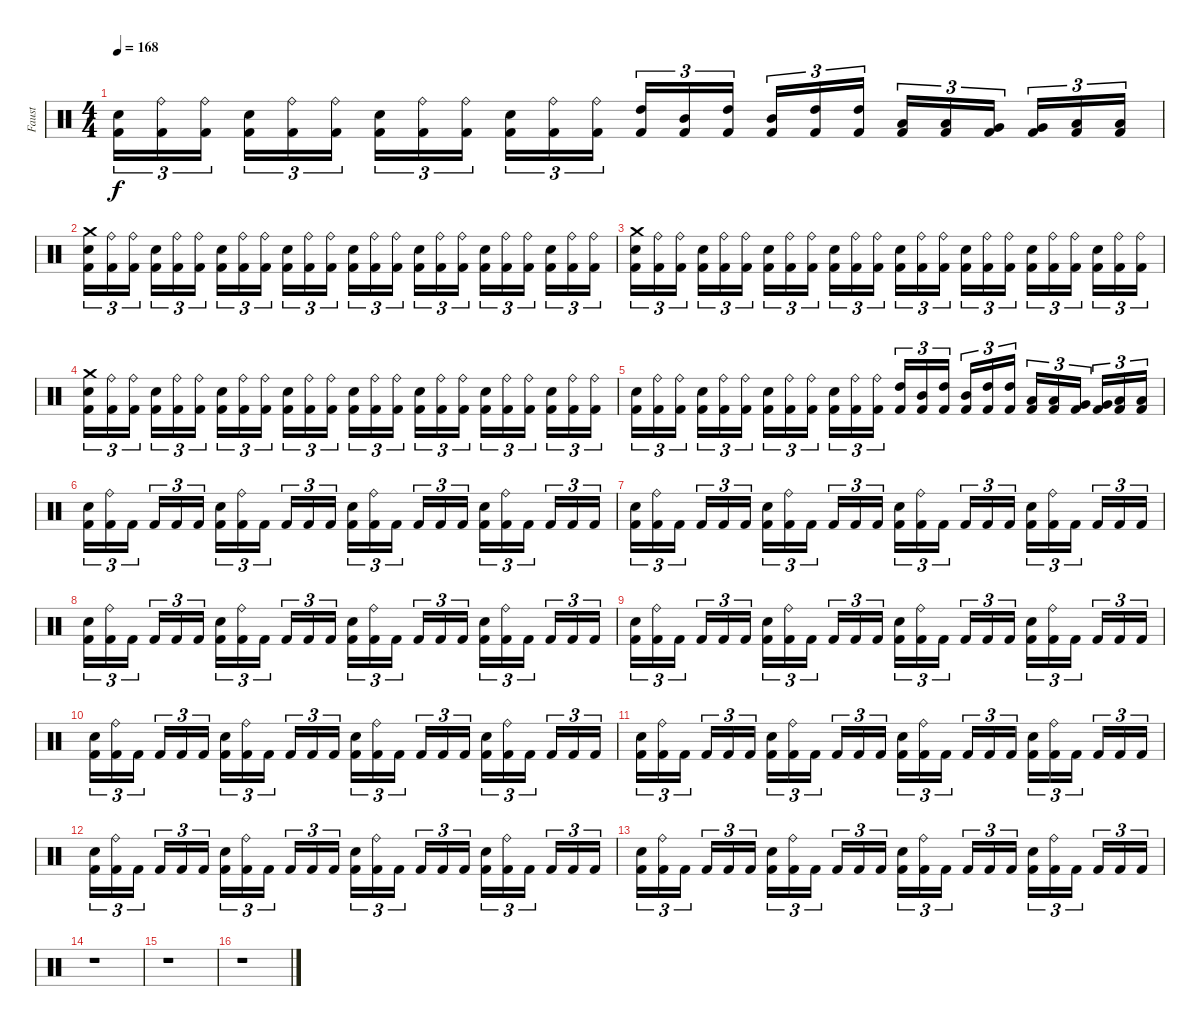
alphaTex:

\track ("Faust" "Faust") {instrument percussion}
\staff {score}
\articulation defaults
\ts (4 4)
\tempo 168
\clef neutral
\ks c
("Electric Snare (hit)" "Kick (hit) 2").16{tu (3 2) dy f} ("Ride (bell)" "Kick (hit) 2").16{tu (3 2)} ("Ride (bell)" "Kick (hit) 2").16{tu (3 2)} ("Electric Snare (hit)" "Kick (hit) 2").16{tu (3 2)} ("Ride (bell)" "Kick (hit) 2").16{tu (3 2)} ("Ride (bell)" "Kick (hit) 2").16{tu (3 2)} ("Electric Snare (hit)" "Kick (hit) 2").16{tu (3 2)} ("Ride (bell)" "Kick (hit) 2").16{tu (3 2)} ("Ride (bell)" "Kick (hit) 2").16{tu (3 2)} ("Electric Snare (hit)" "Kick (hit) 2").16{tu (3 2)} ("Ride (bell)" "Kick (hit) 2").16{tu (3 2)} ("Ride (bell)" "Kick (hit) 2").16{tu (3 2)} ("High Tom (hit)" "Kick (hit) 2").16{tu (3 2)} ("Mid Tom (hit)" "Kick (hit) 2").16{tu (3 2)} ("High Tom (hit)" "Kick (hit) 2").16{tu (3 2)} ("Mid Tom (hit)" "Kick (hit) 2").16{tu (3 2)} ("High Tom (hit)" "Kick (hit) 2").16{tu (3 2)} ("High Tom (hit)" "Kick (hit) 2").16{tu (3 2)} ("Low Tom (hit)" "Kick (hit) 2").16{tu (3 2)} ("Low Tom (hit)" "Kick (hit) 2").16{tu (3 2)} ("Very Low Tom (hit)" "Kick (hit) 2").16{tu (3 2)} ("Very Low Tom (hit)" "Kick (hit) 2").16{tu (3 2)} ("Low Floor Tom (hit)" "Kick (hit) 2").16{tu (3 2)} ("Low Floor Tom (hit)" "Kick (hit) 2").16{tu (3 2)} |
("Crash medium (hit)" "Electric Snare (hit)" "Kick (hit) 2").16{tu (3 2)} ("Ride (bell)" "Kick (hit) 2").16{tu (3 2)} ("Ride (bell)" "Kick (hit) 2").16{tu (3 2)} ("Electric Snare (hit)" "Kick (hit) 2").16{tu (3 2)} ("Ride (bell)" "Kick (hit) 2").16{tu (3 2)} ("Ride (bell)" "Kick (hit) 2").16{tu (3 2)} ("Electric Snare (hit)" "Kick (hit) 2").16{tu (3 2)} ("Ride (bell)" "Kick (hit) 2").16{tu (3 2)} ("Ride (bell)" "Kick (hit) 2").16{tu (3 2)} ("Electric Snare (hit)" "Kick (hit) 2").16{tu (3 2)} ("Ride (bell)" "Kick (hit) 2").16{tu (3 2)} ("Ride (bell)" "Kick (hit) 2").16{tu (3 2)} ("Electric Snare (hit)" "Kick (hit) 2").16{tu (3 2)} ("Ride (bell)" "Kick (hit) 2").16{tu (3 2)} ("Ride (bell)" "Kick (hit) 2").16{tu (3 2)} ("Electric Snare (hit)" "Kick (hit) 2").16{tu (3 2)} ("Ride (bell)" "Kick (hit) 2").16{tu (3 2)} ("Ride (bell)" "Kick (hit) 2").16{tu (3 2)} ("Electric Snare (hit)" "Kick (hit) 2").16{tu (3 2)} ("Ride (bell)" "Kick (hit) 2").16{tu (3 2)} ("Ride (bell)" "Kick (hit) 2").16{tu (3 2)} ("Electric Snare (hit)" "Kick (hit) 2").16{tu (3 2)} ("Ride (bell)" "Kick (hit) 2").16{tu (3 2)} ("Ride (bell)" "Kick (hit) 2").16{tu (3 2)} |
("Crash medium (hit)" "Electric Snare (hit)" "Kick (hit) 2").16{tu (3 2)} ("Ride (bell)" "Kick (hit) 2").16{tu (3 2)} ("Ride (bell)" "Kick (hit) 2").16{tu (3 2)} ("Electric Snare (hit)" "Kick (hit) 2").16{tu (3 2)} ("Ride (bell)" "Kick (hit) 2").16{tu (3 2)} ("Ride (bell)" "Kick (hit) 2").16{tu (3 2)} ("Electric Snare (hit)" "Kick (hit) 2").16{tu (3 2)} ("Ride (bell)" "Kick (hit) 2").16{tu (3 2)} ("Ride (bell)" "Kick (hit) 2").16{tu (3 2)} ("Electric Snare (hit)" "Kick (hit) 2").16{tu (3 2)} ("Ride (bell)" "Kick (hit) 2").16{tu (3 2)} ("Ride (bell)" "Kick (hit) 2").16{tu (3 2)} ("Electric Snare (hit)" "Kick (hit) 2").16{tu (3 2)} ("Ride (bell)" "Kick (hit) 2").16{tu (3 2)} ("Ride (bell)" "Kick (hit) 2").16{tu (3 2)} ("Electric Snare (hit)" "Kick (hit) 2").16{tu (3 2)} ("Ride (bell)" "Kick (hit) 2").16{tu (3 2)} ("Ride (bell)" "Kick (hit) 2").16{tu (3 2)} ("Electric Snare (hit)" "Kick (hit) 2").16{tu (3 2)} ("Ride (bell)" "Kick (hit) 2").16{tu (3 2)} ("Ride (bell)" "Kick (hit) 2").16{tu (3 2)} ("Electric Snare (hit)" "Kick (hit) 2").16{tu (3 2)} ("Ride (bell)" "Kick (hit) 2").16{tu (3 2)} ("Ride (bell)" "Kick (hit) 2").16{tu (3 2)} |
("Crash medium (hit)" "Electric Snare (hit)" "Kick (hit) 2").16{tu (3 2)} ("Ride (bell)" "Kick (hit) 2").16{tu (3 2)} ("Ride (bell)" "Kick (hit) 2").16{tu (3 2)} ("Electric Snare (hit)" "Kick (hit) 2").16{tu (3 2)} ("Ride (bell)" "Kick (hit) 2").16{tu (3 2)} ("Ride (bell)" "Kick (hit) 2").16{tu (3 2)} ("Electric Snare (hit)" "Kick (hit) 2").16{tu (3 2)} ("Ride (bell)" "Kick (hit) 2").16{tu (3 2)} ("Ride (bell)" "Kick (hit) 2").16{tu (3 2)} ("Electric Snare (hit)" "Kick (hit) 2").16{tu (3 2)} ("Ride (bell)" "Kick (hit) 2").16{tu (3 2)} ("Ride (bell)" "Kick (hit) 2").16{tu (3 2)} ("Electric Snare (hit)" "Kick (hit) 2").16{tu (3 2)} ("Ride (bell)" "Kick (hit) 2").16{tu (3 2)} ("Ride (bell)" "Kick (hit) 2").16{tu (3 2)} ("Electric Snare (hit)" "Kick (hit) 2").16{tu (3 2)} ("Ride (bell)" "Kick (hit) 2").16{tu (3 2)} ("Ride (bell)" "Kick (hit) 2").16{tu (3 2)} ("Electric Snare (hit)" "Kick (hit) 2").16{tu (3 2)} ("Ride (bell)" "Kick (hit) 2").16{tu (3 2)} ("Ride (bell)" "Kick (hit) 2").16{tu (3 2)} ("Electric Snare (hit)" "Kick (hit) 2").16{tu (3 2)} ("Ride (bell)" "Kick (hit) 2").16{tu (3 2)} ("Ride (bell)" "Kick (hit) 2").16{tu (3 2)} |
("Electric Snare (hit)" "Kick (hit) 2").16{tu (3 2)} ("Ride (bell)" "Kick (hit) 2").16{tu (3 2)} ("Ride (bell)" "Kick (hit) 2").16{tu (3 2)} ("Electric Snare (hit)" "Kick (hit) 2").16{tu (3 2)} ("Ride (bell)" "Kick (hit) 2").16{tu (3 2)} ("Ride (bell)" "Kick (hit) 2").16{tu (3 2)} ("Electric Snare (hit)" "Kick (hit) 2").16{tu (3 2)} ("Ride (bell)" "Kick (hit) 2").16{tu (3 2)} ("Ride (bell)" "Kick (hit) 2").16{tu (3 2)} ("Electric Snare (hit)" "Kick (hit) 2").16{tu (3 2)} ("Ride (bell)" "Kick (hit) 2").16{tu (3 2)} ("Ride (bell)" "Kick (hit) 2").16{tu (3 2)} ("High Tom (hit)" "Kick (hit) 2").16{tu (3 2)} ("Mid Tom (hit)" "Kick (hit) 2").16{tu (3 2)} ("High Tom (hit)" "Kick (hit) 2").16{tu (3 2)} ("Mid Tom (hit)" "Kick (hit) 2").16{tu (3 2)} ("High Tom (hit)" "Kick (hit) 2").16{tu (3 2)} ("High Tom (hit)" "Kick (hit) 2").16{tu (3 2)} ("Low Tom (hit)" "Kick (hit) 2").16{tu (3 2)} ("Low Tom (hit)" "Kick (hit) 2").16{tu (3 2)} ("Very Low Tom (hit)" "Kick (hit) 2").16{tu (3 2)} ("Very Low Tom (hit)" "Kick (hit) 2").16{tu (3 2)} ("Low Floor Tom (hit)" "Kick (hit) 2").16{tu (3 2)} ("Low Floor Tom (hit)" "Kick (hit) 2").16{tu (3 2)} |
("Electric Snare (hit)" "Kick (hit) 2").16{tu (3 2)} ("Ride (bell)" "Kick (hit) 2").16{tu (3 2)} "Kick (hit) 2".16{tu (3 2)} "Kick (hit) 2".16{tu (3 2)} "Kick (hit) 2".16{tu (3 2)} "Kick (hit) 2".16{tu (3 2)} ("Electric Snare (hit)" "Kick (hit) 2").16{tu (3 2)} ("Ride (bell)" "Kick (hit) 2").16{tu (3 2)} "Kick (hit) 2".16{tu (3 2)} "Kick (hit) 2".16{tu (3 2)} "Kick (hit) 2".16{tu (3 2)} "Kick (hit) 2".16{tu (3 2)} ("Electric Snare (hit)" "Kick (hit) 2").16{tu (3 2)} ("Ride (bell)" "Kick (hit) 2").16{tu (3 2)} "Kick (hit) 2".16{tu (3 2)} "Kick (hit) 2".16{tu (3 2)} "Kick (hit) 2".16{tu (3 2)} "Kick (hit) 2".16{tu (3 2)} ("Electric Snare (hit)" "Kick (hit) 2").16{tu (3 2)} ("Ride (bell)" "Kick (hit) 2").16{tu (3 2)} "Kick (hit) 2".16{tu (3 2)} "Kick (hit) 2".16{tu (3 2)} "Kick (hit) 2".16{tu (3 2)} "Kick (hit) 2".16{tu (3 2)} |
("Electric Snare (hit)" "Kick (hit) 2").16{tu (3 2)} ("Ride (bell)" "Kick (hit) 2").16{tu (3 2)} "Kick (hit) 2".16{tu (3 2)} "Kick (hit) 2".16{tu (3 2)} "Kick (hit) 2".16{tu (3 2)} "Kick (hit) 2".16{tu (3 2)} ("Electric Snare (hit)" "Kick (hit) 2").16{tu (3 2)} ("Ride (bell)" "Kick (hit) 2").16{tu (3 2)} "Kick (hit) 2".16{tu (3 2)} "Kick (hit) 2".16{tu (3 2)} "Kick (hit) 2".16{tu (3 2)} "Kick (hit) 2".16{tu (3 2)} ("Electric Snare (hit)" "Kick (hit) 2").16{tu (3 2)} ("Ride (bell)" "Kick (hit) 2").16{tu (3 2)} "Kick (hit) 2".16{tu (3 2)} "Kick (hit) 2".16{tu (3 2)} "Kick (hit) 2".16{tu (3 2)} "Kick (hit) 2".16{tu (3 2)} ("Electric Snare (hit)" "Kick (hit) 2").16{tu (3 2)} ("Ride (bell)" "Kick (hit) 2").16{tu (3 2)} "Kick (hit) 2".16{tu (3 2)} "Kick (hit) 2".16{tu (3 2)} "Kick (hit) 2".16{tu (3 2)} "Kick (hit) 2".16{tu (3 2)} |
("Electric Snare (hit)" "Kick (hit) 2").16{tu (3 2)} ("Ride (bell)" "Kick (hit) 2").16{tu (3 2)} "Kick (hit) 2".16{tu (3 2)} "Kick (hit) 2".16{tu (3 2)} "Kick (hit) 2".16{tu (3 2)} "Kick (hit) 2".16{tu (3 2)} ("Electric Snare (hit)" "Kick (hit) 2").16{tu (3 2)} ("Ride (bell)" "Kick (hit) 2").16{tu (3 2)} "Kick (hit) 2".16{tu (3 2)} "Kick (hit) 2".16{tu (3 2)} "Kick (hit) 2".16{tu (3 2)} "Kick (hit) 2".16{tu (3 2)} ("Electric Snare (hit)" "Kick (hit) 2").16{tu (3 2)} ("Ride (bell)" "Kick (hit) 2").16{tu (3 2)} "Kick (hit) 2".16{tu (3 2)} "Kick (hit) 2".16{tu (3 2)} "Kick (hit) 2".16{tu (3 2)} "Kick (hit) 2".16{tu (3 2)} ("Electric Snare (hit)" "Kick (hit) 2").16{tu (3 2)} ("Ride (bell)" "Kick (hit) 2").16{tu (3 2)} "Kick (hit) 2".16{tu (3 2)} "Kick (hit) 2".16{tu (3 2)} "Kick (hit) 2".16{tu (3 2)} "Kick (hit) 2".16{tu (3 2)} |
("Electric Snare (hit)" "Kick (hit) 2").16{tu (3 2)} ("Ride (bell)" "Kick (hit) 2").16{tu (3 2)} "Kick (hit) 2".16{tu (3 2)} "Kick (hit) 2".16{tu (3 2)} "Kick (hit) 2".16{tu (3 2)} "Kick (hit) 2".16{tu (3 2)} ("Electric Snare (hit)" "Kick (hit) 2").16{tu (3 2)} ("Ride (bell)" "Kick (hit) 2").16{tu (3 2)} "Kick (hit) 2".16{tu (3 2)} "Kick (hit) 2".16{tu (3 2)} "Kick (hit) 2".16{tu (3 2)} "Kick (hit) 2".16{tu (3 2)} ("Electric Snare (hit)" "Kick (hit) 2").16{tu (3 2)} ("Ride (bell)" "Kick (hit) 2").16{tu (3 2)} "Kick (hit) 2".16{tu (3 2)} "Kick (hit) 2".16{tu (3 2)} "Kick (hit) 2".16{tu (3 2)} "Kick (hit) 2".16{tu (3 2)} ("Electric Snare (hit)" "Kick (hit) 2").16{tu (3 2)} ("Ride (bell)" "Kick (hit) 2").16{tu (3 2)} "Kick (hit) 2".16{tu (3 2)} "Kick (hit) 2".16{tu (3 2)} "Kick (hit) 2".16{tu (3 2)} "Kick (hit) 2".16{tu (3 2)} |
("Electric Snare (hit)" "Kick (hit) 2").16{tu (3 2)} ("Ride (bell)" "Kick (hit) 2").16{tu (3 2)} "Kick (hit) 2".16{tu (3 2)} "Kick (hit) 2".16{tu (3 2)} "Kick (hit) 2".16{tu (3 2)} "Kick (hit) 2".16{tu (3 2)} ("Electric Snare (hit)" "Kick (hit) 2").16{tu (3 2)} ("Ride (bell)" "Kick (hit) 2").16{tu (3 2)} "Kick (hit) 2".16{tu (3 2)} "Kick (hit) 2".16{tu (3 2)} "Kick (hit) 2".16{tu (3 2)} "Kick (hit) 2".16{tu (3 2)} ("Electric Snare (hit)" "Kick (hit) 2").16{tu (3 2)} ("Ride (bell)" "Kick (hit) 2").16{tu (3 2)} "Kick (hit) 2".16{tu (3 2)} "Kick (hit) 2".16{tu (3 2)} "Kick (hit) 2".16{tu (3 2)} "Kick (hit) 2".16{tu (3 2)} ("Electric Snare (hit)" "Kick (hit) 2").16{tu (3 2)} ("Ride (bell)" "Kick (hit) 2").16{tu (3 2)} "Kick (hit) 2".16{tu (3 2)} "Kick (hit) 2".16{tu (3 2)} "Kick (hit) 2".16{tu (3 2)} "Kick (hit) 2".16{tu (3 2)} |
("Electric Snare (hit)" "Kick (hit) 2").16{tu (3 2)} ("Ride (bell)" "Kick (hit) 2").16{tu (3 2)} "Kick (hit) 2".16{tu (3 2)} "Kick (hit) 2".16{tu (3 2)} "Kick (hit) 2".16{tu (3 2)} "Kick (hit) 2".16{tu (3 2)} ("Electric Snare (hit)" "Kick (hit) 2").16{tu (3 2)} ("Ride (bell)" "Kick (hit) 2").16{tu (3 2)} "Kick (hit) 2".16{tu (3 2)} "Kick (hit) 2".16{tu (3 2)} "Kick (hit) 2".16{tu (3 2)} "Kick (hit) 2".16{tu (3 2)} ("Electric Snare (hit)" "Kick (hit) 2").16{tu (3 2)} ("Ride (bell)" "Kick (hit) 2").16{tu (3 2)} "Kick (hit) 2".16{tu (3 2)} "Kick (hit) 2".16{tu (3 2)} "Kick (hit) 2".16{tu (3 2)} "Kick (hit) 2".16{tu (3 2)} ("Electric Snare (hit)" "Kick (hit) 2").16{tu (3 2)} ("Ride (bell)" "Kick (hit) 2").16{tu (3 2)} "Kick (hit) 2".16{tu (3 2)} "Kick (hit) 2".16{tu (3 2)} "Kick (hit) 2".16{tu (3 2)} "Kick (hit) 2".16{tu (3 2)} |
("Electric Snare (hit)" "Kick (hit) 2").16{tu (3 2)} ("Ride (bell)" "Kick (hit) 2").16{tu (3 2)} "Kick (hit) 2".16{tu (3 2)} "Kick (hit) 2".16{tu (3 2)} "Kick (hit) 2".16{tu (3 2)} "Kick (hit) 2".16{tu (3 2)} ("Electric Snare (hit)" "Kick (hit) 2").16{tu (3 2)} ("Ride (bell)" "Kick (hit) 2").16{tu (3 2)} "Kick (hit) 2".16{tu (3 2)} "Kick (hit) 2".16{tu (3 2)} "Kick (hit) 2".16{tu (3 2)} "Kick (hit) 2".16{tu (3 2)} ("Electric Snare (hit)" "Kick (hit) 2").16{tu (3 2)} ("Ride (bell)" "Kick (hit) 2").16{tu (3 2)} "Kick (hit) 2".16{tu (3 2)} "Kick (hit) 2".16{tu (3 2)} "Kick (hit) 2".16{tu (3 2)} "Kick (hit) 2".16{tu (3 2)} ("Electric Snare (hit)" "Kick (hit) 2").16{tu (3 2)} ("Ride (bell)" "Kick (hit) 2").16{tu (3 2)} "Kick (hit) 2".16{tu (3 2)} "Kick (hit) 2".16{tu (3 2)} "Kick (hit) 2".16{tu (3 2)} "Kick (hit) 2".16{tu (3 2)} |
("Electric Snare (hit)" "Kick (hit) 2").16{tu (3 2)} ("Ride (bell)" "Kick (hit) 2").16{tu (3 2)} "Kick (hit) 2".16{tu (3 2)} "Kick (hit) 2".16{tu (3 2)} "Kick (hit) 2".16{tu (3 2)} "Kick (hit) 2".16{tu (3 2)} ("Electric Snare (hit)" "Kick (hit) 2").16{tu (3 2)} ("Ride (bell)" "Kick (hit) 2").16{tu (3 2)} "Kick (hit) 2".16{tu (3 2)} "Kick (hit) 2".16{tu (3 2)} "Kick (hit) 2".16{tu (3 2)} "Kick (hit) 2".16{tu (3 2)} ("Electric Snare (hit)" "Kick (hit) 2").16{tu (3 2)} ("Ride (bell)" "Kick (hit) 2").16{tu (3 2)} "Kick (hit) 2".16{tu (3 2)} "Kick (hit) 2".16{tu (3 2)} "Kick (hit) 2".16{tu (3 2)} "Kick (hit) 2".16{tu (3 2)} ("Electric Snare (hit)" "Kick (hit) 2").16{tu (3 2)} ("Ride (bell)" "Kick (hit) 2").16{tu (3 2)} "Kick (hit) 2".16{tu (3 2)} "Kick (hit) 2".16{tu (3 2)} "Kick (hit) 2".16{tu (3 2)} "Kick (hit) 2".16{tu (3 2)} |
r.1 |
r.1 |
r.1
